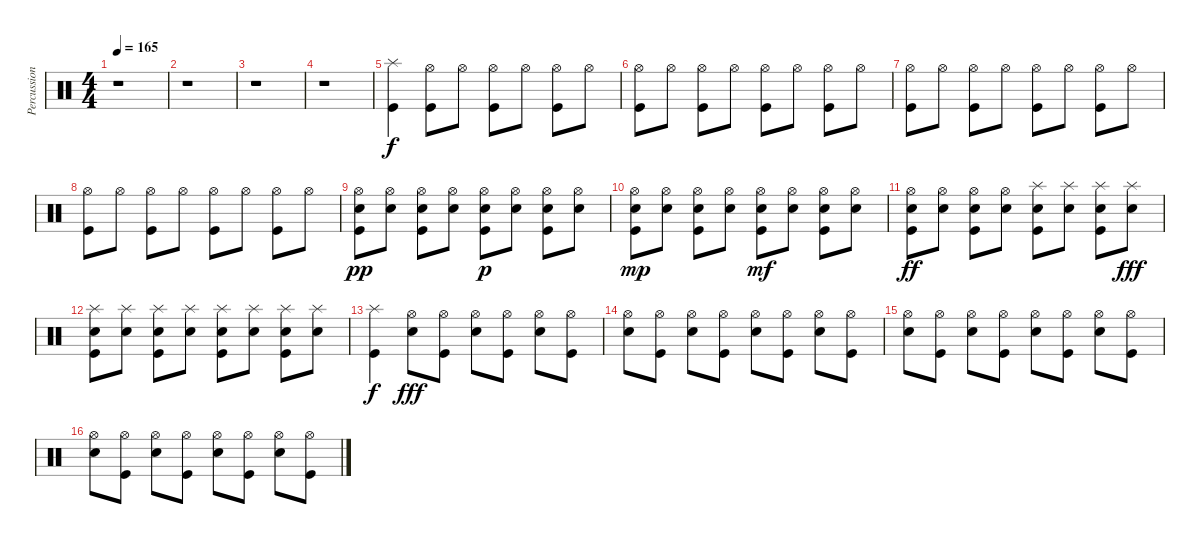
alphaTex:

\track ("Percussion" "Percussion") {instrument percussion}
\staff {score}
\articulation defaults
\ts (4 4)
\tempo 165
\clef neutral
\ks c
r.1{dy f} |
r.1 |
r.1 |
r.1 |
("Splash (hit)" "Kick (hit)").4 ("Hi-Hat (open)" "Kick (hit)").8 "Hi-Hat (open)".8 ("Hi-Hat (open)" "Kick (hit)").8 "Hi-Hat (open)".8 ("Hi-Hat (open)" "Kick (hit)").8 "Hi-Hat (open)".8 |
("Hi-Hat (open)" "Kick (hit)").8 "Hi-Hat (open)".8 ("Hi-Hat (open)" "Kick (hit)").8 "Hi-Hat (open)".8 ("Hi-Hat (open)" "Kick (hit)").8 "Hi-Hat (open)".8 ("Hi-Hat (open)" "Kick (hit)").8 "Hi-Hat (open)".8 |
("Hi-Hat (open)" "Kick (hit)").8 "Hi-Hat (open)".8 ("Hi-Hat (open)" "Kick (hit)").8 "Hi-Hat (open)".8 ("Hi-Hat (open)" "Kick (hit)").8 "Hi-Hat (open)".8 ("Hi-Hat (open)" "Kick (hit)").8 "Hi-Hat (open)".8 |
("Hi-Hat (open)" "Kick (hit)").8 "Hi-Hat (open)".8 ("Hi-Hat (open)" "Kick (hit)").8 "Hi-Hat (open)".8 ("Hi-Hat (open)" "Kick (hit)").8 "Hi-Hat (open)".8 ("Hi-Hat (open)" "Kick (hit)").8 "Hi-Hat (open)".8 |
("Hi-Hat (open)" "Snare (hit) 2" "Kick (hit)").8{dy pp} ("Hi-Hat (open)" "Snare (hit) 2").8 ("Hi-Hat (open)" "Snare (hit) 2" "Kick (hit)").8 ("Hi-Hat (open)" "Snare (hit) 2").8 ("Hi-Hat (open)" "Snare (hit) 2" "Kick (hit)").8{dy p} ("Hi-Hat (open)" "Snare (hit) 2").8 ("Hi-Hat (open)" "Snare (hit) 2" "Kick (hit)").8 ("Hi-Hat (open)" "Snare (hit) 2").8 |
("Hi-Hat (open)" "Snare (hit) 2" "Kick (hit)").8{dy mp} ("Hi-Hat (open)" "Snare (hit) 2").8 ("Hi-Hat (open)" "Snare (hit) 2" "Kick (hit)").8 ("Hi-Hat (open)" "Snare (hit) 2").8 ("Hi-Hat (open)" "Snare (hit) 2" "Kick (hit)").8{dy mf} ("Hi-Hat (open)" "Snare (hit) 2").8 ("Hi-Hat (open)" "Snare (hit) 2" "Kick (hit)").8 ("Hi-Hat (open)" "Snare (hit) 2").8 |
("Hi-Hat (open)" "Snare (hit) 2" "Kick (hit)").8{dy ff} ("Hi-Hat (open)" "Snare (hit) 2").8 ("Hi-Hat (open)" "Snare (hit) 2" "Kick (hit)").8 ("Hi-Hat (open)" "Snare (hit) 2").8 ("Splash (hit)" "Snare (hit) 2" "Kick (hit)").8 ("Splash (hit)" "Snare (hit) 2").8 ("Splash (hit)" "Snare (hit) 2" "Kick (hit)").8 ("Splash (hit)" "Snare (hit) 2").8{dy fff} |
("Splash (hit)" "Snare (hit) 2" "Kick (hit)").8 ("Splash (hit)" "Snare (hit) 2").8 ("Splash (hit)" "Snare (hit) 2" "Kick (hit)").8 ("Splash (hit)" "Snare (hit) 2").8 ("Splash (hit)" "Snare (hit) 2" "Kick (hit)").8 ("Splash (hit)" "Snare (hit) 2").8 ("Splash (hit)" "Snare (hit) 2" "Kick (hit)").8 ("Splash (hit)" "Snare (hit) 2").8 |
("Splash (hit)" "Kick (hit)").4{dy f} ("Hi-Hat (open)" "Snare (hit) 2").8{dy fff} ("Hi-Hat (open)" "Kick (hit)").8 ("Hi-Hat (open)" "Snare (hit) 2").8 ("Hi-Hat (open)" "Kick (hit)").8 ("Hi-Hat (open)" "Snare (hit) 2").8 ("Hi-Hat (open)" "Kick (hit)").8 |
("Hi-Hat (open)" "Snare (hit) 2").8 ("Hi-Hat (open)" "Kick (hit)").8 ("Hi-Hat (open)" "Snare (hit) 2").8 ("Hi-Hat (open)" "Kick (hit)").8 ("Hi-Hat (open)" "Snare (hit) 2").8 ("Hi-Hat (open)" "Kick (hit)").8 ("Hi-Hat (open)" "Snare (hit) 2").8 ("Hi-Hat (open)" "Kick (hit)").8 |
("Hi-Hat (open)" "Snare (hit) 2").8 ("Hi-Hat (open)" "Kick (hit)").8 ("Hi-Hat (open)" "Snare (hit) 2").8 ("Hi-Hat (open)" "Kick (hit)").8 ("Hi-Hat (open)" "Snare (hit) 2").8 ("Hi-Hat (open)" "Kick (hit)").8 ("Hi-Hat (open)" "Snare (hit) 2").8 ("Hi-Hat (open)" "Kick (hit)").8 |
("Hi-Hat (open)" "Snare (hit) 2").8 ("Hi-Hat (open)" "Kick (hit)").8 ("Hi-Hat (open)" "Snare (hit) 2").8 ("Hi-Hat (open)" "Kick (hit)").8 ("Hi-Hat (open)" "Snare (hit) 2").8 ("Hi-Hat (open)" "Kick (hit)").8 ("Hi-Hat (open)" "Snare (hit) 2").8 ("Hi-Hat (open)" "Kick (hit)").8
